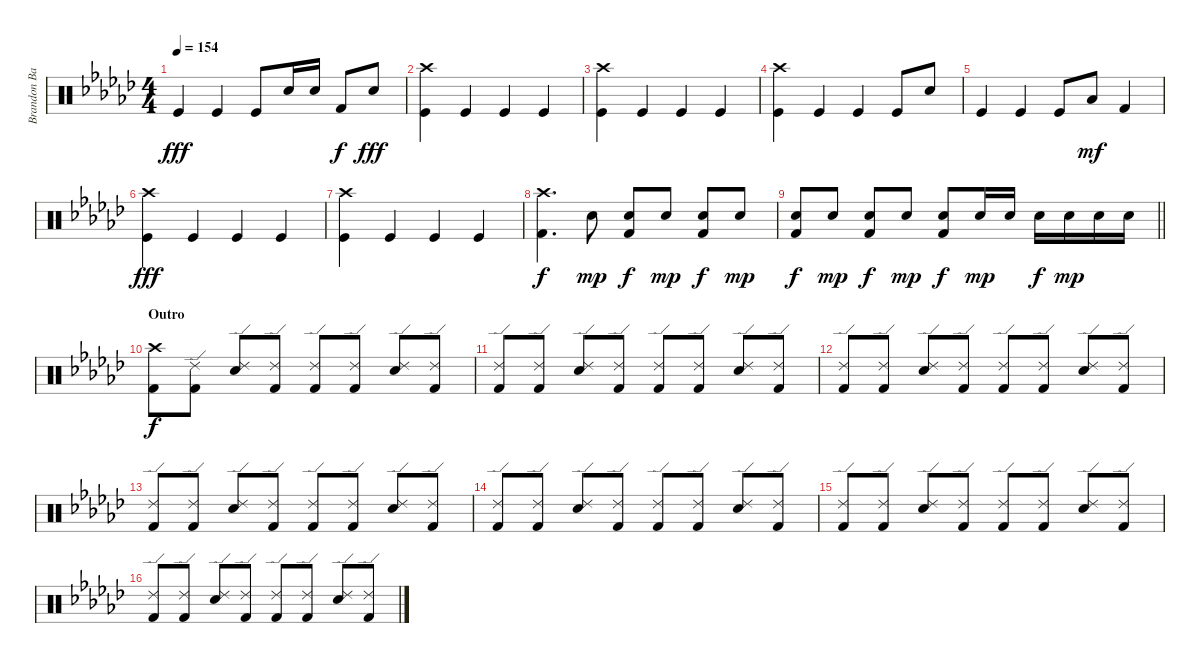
\track ("Brandon Barnes - Drums" "Brandon Ba") {instrument percussion}
\staff {score}
\articulation defaults
\ts (4 4)
\tempo 154
\clef neutral
\ks gb "Kick (hit)".4{dy fff} "Kick (hit)".4 "Kick (hit)".8 "Snare (hit) 2".16 "Snare (hit) 2".16 "Kick (hit) 2".8{dy f} "Snare (hit) 2".8{dy fff}
|
("Kick (hit)" "Crash high (hit)").4 "Kick (hit)".4 "Kick (hit)".4 "Kick (hit)".4 |
("Kick (hit)" "Crash high (hit)").4 "Kick (hit)".4 "Kick (hit)".4 "Kick (hit)".4 |
("Kick (hit)" "Crash high (hit)").4 "Kick (hit)".4 "Kick (hit)".4 "Kick (hit)".8 "Snare (hit) 2".8 |
"Kick (hit)".4 "Kick (hit)".4 "Kick (hit)".8 "Low Tom (hit)".8{dy mf} "Kick (hit) 2".4 |
("Kick (hit)" "Crash high (hit)").4{dy fff} "Kick (hit)".4 "Kick (hit)".4 "Kick (hit)".4 |
("Kick (hit)" "Crash high (hit)").4 "Kick (hit)".4 "Kick (hit)".4 "Kick (hit)".4 |
("Crash high (hit)" "Kick (hit) 2").4{d dy f} "Snare (hit) 2".8{dy mp} ("Kick (hit) 2" "Snare (hit) 2").8{dy f} "Snare (hit) 2".8{dy mp} ("Kick (hit) 2" "Snare (hit) 2").8{dy f} "Snare (hit) 2".8{dy mp} |
\barLineRight lightlight
("Kick (hit) 2" "Snare (hit) 2").8{dy f} "Snare (hit) 2".8{dy mp} ("Kick (hit) 2" "Snare (hit) 2").8{dy f} "Snare (hit) 2".8{dy mp} ("Kick (hit) 2" "Snare (hit) 2").8{dy f} "Snare (hit) 2".16{dy mp} "Snare (hit) 2".16 "Snare (hit) 2".16{dy f} "Snare (hit) 2".16{dy mp} "Snare (hit) 2".16 "Snare (hit) 2".16 |
\section ("" "Outro")
("Crash high (hit)" "Kick (hit) 2").8{dy f} ("Kick (hit) 2" "Ride (edge) 2").8 ("Snare (hit) 2" "Ride (edge) 2").8 ("Kick (hit) 2" "Ride (edge) 2").8 ("Kick (hit) 2" "Ride (edge) 2").8 ("Kick (hit) 2" "Ride (edge) 2").8 ("Snare (hit) 2" "Ride (edge) 2").8 ("Kick (hit) 2" "Ride (edge) 2").8 |
("Kick (hit) 2" "Ride (edge) 2").8 ("Kick (hit) 2" "Ride (edge) 2").8 ("Snare (hit) 2" "Ride (edge) 2").8 ("Kick (hit) 2" "Ride (edge) 2").8 ("Kick (hit) 2" "Ride (edge) 2").8 ("Kick (hit) 2" "Ride (edge) 2").8 ("Snare (hit) 2" "Ride (edge) 2").8 ("Kick (hit) 2" "Ride (edge) 2").8 |
("Kick (hit) 2" "Ride (edge) 2").8 ("Kick (hit) 2" "Ride (edge) 2").8 ("Snare (hit) 2" "Ride (edge) 2").8 ("Kick (hit) 2" "Ride (edge) 2").8 ("Kick (hit) 2" "Ride (edge) 2").8 ("Kick (hit) 2" "Ride (edge) 2").8 ("Snare (hit) 2" "Ride (edge) 2").8 ("Kick (hit) 2" "Ride (edge) 2").8 |
("Kick (hit) 2" "Ride (edge) 2").8 ("Kick (hit) 2" "Ride (edge) 2").8 ("Snare (hit) 2" "Ride (edge) 2").8 ("Kick (hit) 2" "Ride (edge) 2").8 ("Kick (hit) 2" "Ride (edge) 2").8 ("Kick (hit) 2" "Ride (edge) 2").8 ("Snare (hit) 2" "Ride (edge) 2").8 ("Kick (hit) 2" "Ride (edge) 2").8 |
("Kick (hit) 2" "Ride (edge) 2").8 ("Kick (hit) 2" "Ride (edge) 2").8 ("Snare (hit) 2" "Ride (edge) 2").8 ("Kick (hit) 2" "Ride (edge) 2").8 ("Kick (hit) 2" "Ride (edge) 2").8 ("Kick (hit) 2" "Ride (edge) 2").8 ("Snare (hit) 2" "Ride (edge) 2").8 ("Kick (hit) 2" "Ride (edge) 2").8 |
("Kick (hit) 2" "Ride (edge) 2").8 ("Kick (hit) 2" "Ride (edge) 2").8 ("Snare (hit) 2" "Ride (edge) 2").8 ("Kick (hit) 2" "Ride (edge) 2").8 ("Kick (hit) 2" "Ride (edge) 2").8 ("Kick (hit) 2" "Ride (edge) 2").8 ("Snare (hit) 2" "Ride (edge) 2").8 ("Kick (hit) 2" "Ride (edge) 2").8 |
("Kick (hit) 2" "Ride (edge) 2").8 ("Kick (hit) 2" "Ride (edge) 2").8 ("Snare (hit) 2" "Ride (edge) 2").8 ("Kick (hit) 2" "Ride (edge) 2").8 ("Kick (hit) 2" "Ride (edge) 2").8 ("Kick (hit) 2" "Ride (edge) 2").8 ("Snare (hit) 2" "Ride (edge) 2").8 ("Kick (hit) 2" "Ride (edge) 2").8
